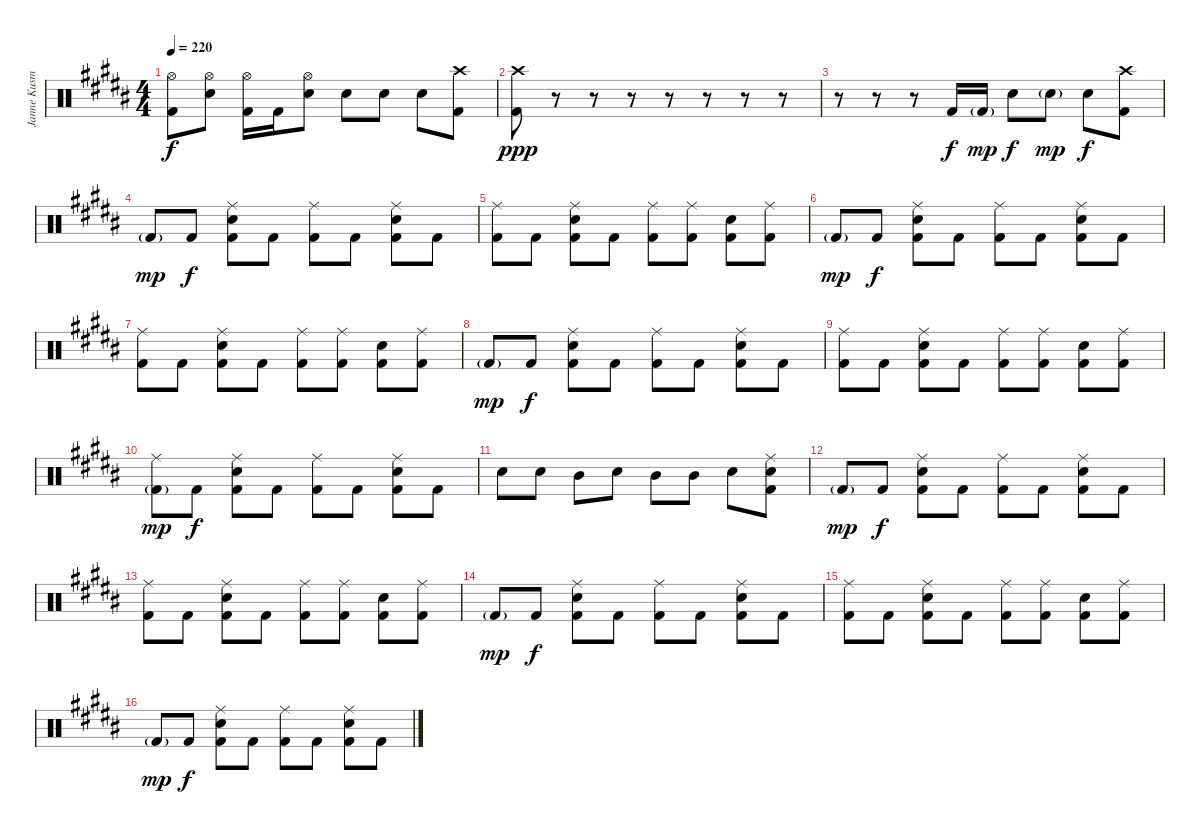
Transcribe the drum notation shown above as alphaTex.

\track ("Janne Kusmin" "Janne Kusm") {instrument percussion}
\staff {score}
\articulation defaults
\ts (4 4)
\tempo 220
\clef neutral
\ks b
("Hi-Hat (open)" "Kick (hit) 2").8{dy f} ("Hi-Hat (open)" "Electric Snare (hit)").8 ("Hi-Hat (open)" "Kick (hit) 2").16 "Kick (hit) 2".16 ("Hi-Hat (open)" "Electric Snare (hit)").8 "Electric Snare (hit)".8 "Electric Snare (hit)".8 "Electric Snare (hit)".8 ("Crash high (hit)" "Kick (hit) 2").8 |
("Crash high (hit)" "Kick (hit) 2").8{dy ppp} r.8 r.8 r.8 r.8 r.8 r.8 r.8 |
\ks g#minor
r.8 r.8 r.8 "Kick (hit) 2".16{dy f} "Kick (hit) 2"{g}.16{dy mp} "Electric Snare (hit)".8{dy f} "Electric Snare (hit)"{g}.8{dy mp} "Electric Snare (hit)".8{dy f} ("Crash high (hit)" "Kick (hit) 2").8 |
"Kick (hit) 2"{g}.8{dy mp} "Kick (hit) 2".8{dy f} ("Ride (middle)" "Electric Snare (hit)" "Kick (hit) 2").8 "Kick (hit) 2".8 ("Ride (middle)" "Kick (hit) 2").8 "Kick (hit) 2".8 ("Ride (middle)" "Electric Snare (hit)" "Kick (hit) 2").8 "Kick (hit) 2".8 |
\ks b
("Ride (middle)" "Kick (hit) 2").8 "Kick (hit) 2".8 ("Ride (middle)" "Electric Snare (hit)" "Kick (hit) 2").8 "Kick (hit) 2".8 ("Ride (middle)" "Kick (hit) 2").8 ("Ride (middle)" "Kick (hit) 2").8 ("Electric Snare (hit)" "Kick (hit) 2").8 ("Ride (middle)" "Kick (hit) 2").8 |
\ks g#minor "Kick (hit) 2"{g}.8{dy mp} "Kick (hit) 2".8{dy f}
("Ride (middle)" "Electric Snare (hit)" "Kick (hit) 2").8 "Kick (hit) 2".8 ("Ride (middle)" "Kick (hit) 2").8 "Kick (hit) 2".8 ("Ride (middle)" "Electric Snare (hit)" "Kick (hit) 2").8 "Kick (hit) 2".8 |
\ks b
("Ride (middle)" "Kick (hit) 2").8 "Kick (hit) 2".8 ("Ride (middle)" "Electric Snare (hit)" "Kick (hit) 2").8 "Kick (hit) 2".8 ("Ride (middle)" "Kick (hit) 2").8 ("Ride (middle)" "Kick (hit) 2").8 ("Electric Snare (hit)" "Kick (hit) 2").8 ("Ride (middle)" "Kick (hit) 2").8 |
\ks g#minor "Kick (hit) 2"{g}.8{dy mp} "Kick (hit) 2".8{dy f}
("Ride (middle)" "Electric Snare (hit)" "Kick (hit) 2").8 "Kick (hit) 2".8 ("Ride (middle)" "Kick (hit) 2").8 "Kick (hit) 2".8 ("Ride (middle)" "Electric Snare (hit)" "Kick (hit) 2").8 "Kick (hit) 2".8 |
\ks b
("Ride (middle)" "Kick (hit) 2").8 "Kick (hit) 2".8 ("Ride (middle)" "Electric Snare (hit)" "Kick (hit) 2").8 "Kick (hit) 2".8 ("Ride (middle)" "Kick (hit) 2").8 ("Ride (middle)" "Kick (hit) 2").8 ("Electric Snare (hit)" "Kick (hit) 2").8 ("Ride (middle)" "Kick (hit) 2").8 |
\ks g#minor
("Ride (middle)" "Kick (hit) 2"{g}).8{dy mp} "Kick (hit) 2".8{dy f} ("Ride (middle)" "Electric Snare (hit)" "Kick (hit) 2").8 "Kick (hit) 2".8 ("Ride (middle)" "Kick (hit) 2").8 "Kick (hit) 2".8 ("Ride (middle)" "Electric Snare (hit)" "Kick (hit) 2").8 "Kick (hit) 2".8 |
\ks b "Electric Snare (hit)".8 "Electric Snare (hit)".8 "Mid Tom (hit)".8 "Electric Snare (hit)".8 "Mid Tom (hit)".8 "Mid Tom (hit)".8 "Electric Snare (hit)".8
("Ride (middle)" "Electric Snare (hit)" "Kick (hit) 2").8 |
\ks g#minor "Kick (hit) 2"{g}.8{dy mp} "Kick (hit) 2".8{dy f}
("Ride (middle)" "Electric Snare (hit)" "Kick (hit) 2").8 "Kick (hit) 2".8 ("Ride (middle)" "Kick (hit) 2").8 "Kick (hit) 2".8 ("Ride (middle)" "Electric Snare (hit)" "Kick (hit) 2").8 "Kick (hit) 2".8 |
\ks b
("Ride (middle)" "Kick (hit) 2").8 "Kick (hit) 2".8 ("Ride (middle)" "Electric Snare (hit)" "Kick (hit) 2").8 "Kick (hit) 2".8 ("Ride (middle)" "Kick (hit) 2").8 ("Ride (middle)" "Kick (hit) 2").8 ("Electric Snare (hit)" "Kick (hit) 2").8 ("Ride (middle)" "Kick (hit) 2").8 |
\ks g#minor "Kick (hit) 2"{g}.8{dy mp} "Kick (hit) 2".8{dy f}
("Ride (middle)" "Electric Snare (hit)" "Kick (hit) 2").8 "Kick (hit) 2".8 ("Ride (middle)" "Kick (hit) 2").8 "Kick (hit) 2".8 ("Ride (middle)" "Electric Snare (hit)" "Kick (hit) 2").8 "Kick (hit) 2".8 |
\ks b
("Ride (middle)" "Kick (hit) 2").8 "Kick (hit) 2".8 ("Ride (middle)" "Electric Snare (hit)" "Kick (hit) 2").8 "Kick (hit) 2".8 ("Ride (middle)" "Kick (hit) 2").8 ("Ride (middle)" "Kick (hit) 2").8 ("Electric Snare (hit)" "Kick (hit) 2").8 ("Ride (middle)" "Kick (hit) 2").8 |
\ks g#minor "Kick (hit) 2"{g}.8{dy mp} "Kick (hit) 2".8{dy f}
("Ride (middle)" "Electric Snare (hit)" "Kick (hit) 2").8 "Kick (hit) 2".8 ("Ride (middle)" "Kick (hit) 2").8 "Kick (hit) 2".8 ("Ride (middle)" "Electric Snare (hit)" "Kick (hit) 2").8 "Kick (hit) 2".8
